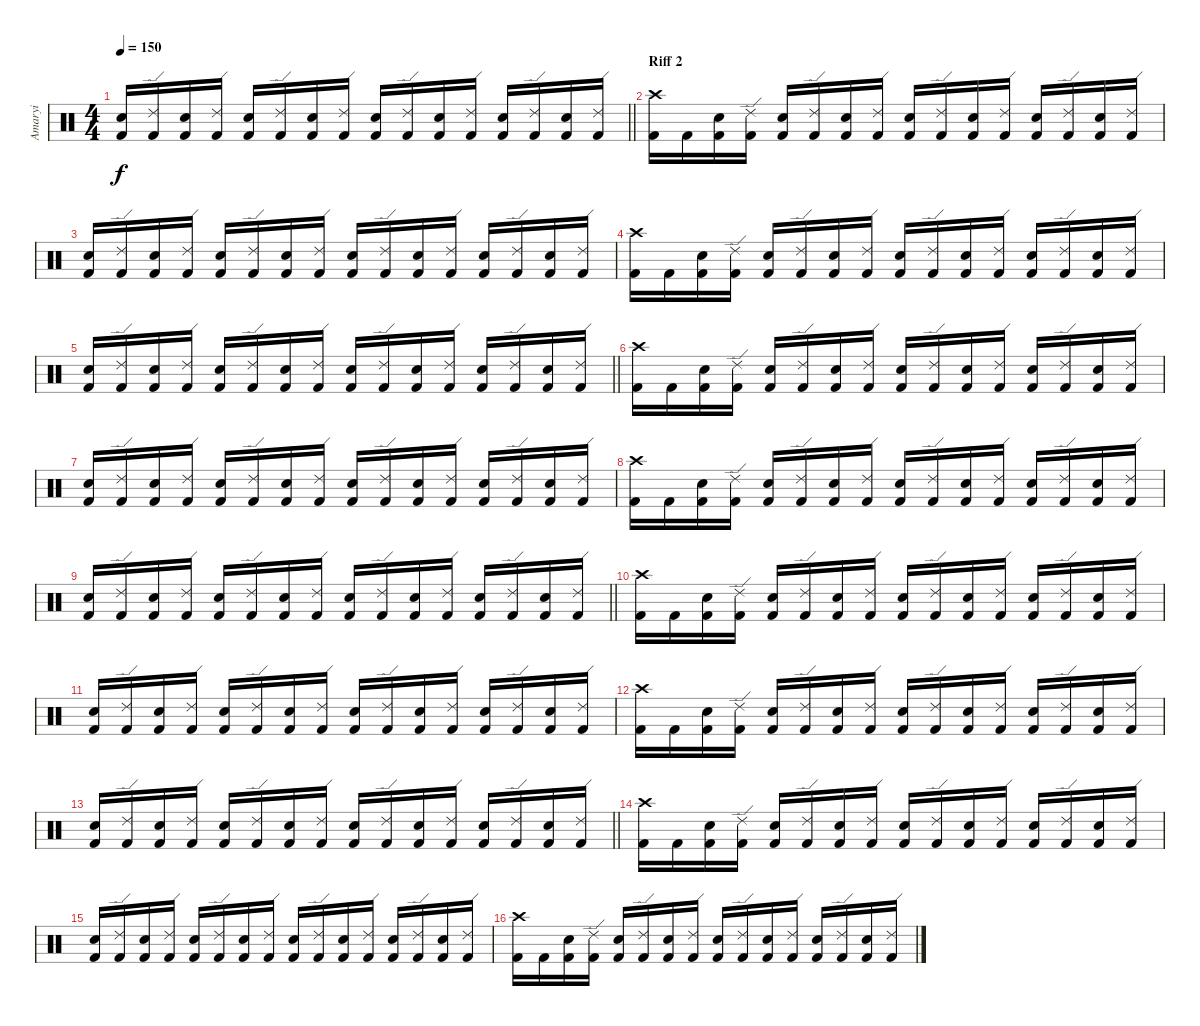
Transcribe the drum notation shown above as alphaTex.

\track ("Amaryi" "Amaryi") {instrument percussion}
\staff {score}
\articulation defaults
\ts (4 4)
\tempo 150
\clef neutral
\barLineRight lightlight
\ks c
("Electric Snare (hit)" "Kick (hit) 2").16{dy f} ("Ride (edge) 2" "Kick (hit) 2").16 ("Electric Snare (hit)" "Kick (hit) 2").16 ("Ride (edge) 2" "Kick (hit) 2").16 ("Electric Snare (hit)" "Kick (hit) 2").16 ("Ride (edge) 2" "Kick (hit) 2").16 ("Electric Snare (hit)" "Kick (hit) 2").16 ("Ride (edge) 2" "Kick (hit) 2").16 ("Electric Snare (hit)" "Kick (hit) 2").16 ("Ride (edge) 2" "Kick (hit) 2").16 ("Electric Snare (hit)" "Kick (hit) 2").16 ("Ride (edge) 2" "Kick (hit) 2").16 ("Electric Snare (hit)" "Kick (hit) 2").16 ("Ride (edge) 2" "Kick (hit) 2").16 ("Electric Snare (hit)" "Kick (hit) 2").16 ("Ride (edge) 2" "Kick (hit) 2").16 |
\section ("" "Riff 2")
("Crash high (hit)" "Kick (hit) 2").16 "Kick (hit) 2".16 ("Electric Snare (hit)" "Kick (hit) 2").16 ("Ride (edge) 2" "Kick (hit) 2").16 ("Electric Snare (hit)" "Kick (hit) 2").16 ("Ride (edge) 2" "Kick (hit) 2").16 ("Electric Snare (hit)" "Kick (hit) 2").16 ("Ride (edge) 2" "Kick (hit) 2").16 ("Electric Snare (hit)" "Kick (hit) 2").16 ("Ride (edge) 2" "Kick (hit) 2").16 ("Electric Snare (hit)" "Kick (hit) 2").16 ("Ride (edge) 2" "Kick (hit) 2").16 ("Electric Snare (hit)" "Kick (hit) 2").16 ("Ride (edge) 2" "Kick (hit) 2").16 ("Electric Snare (hit)" "Kick (hit) 2").16 ("Ride (edge) 2" "Kick (hit) 2").16 |
("Electric Snare (hit)" "Kick (hit) 2").16 ("Ride (edge) 2" "Kick (hit) 2").16 ("Electric Snare (hit)" "Kick (hit) 2").16 ("Ride (edge) 2" "Kick (hit) 2").16 ("Electric Snare (hit)" "Kick (hit) 2").16 ("Ride (edge) 2" "Kick (hit) 2").16 ("Electric Snare (hit)" "Kick (hit) 2").16 ("Ride (edge) 2" "Kick (hit) 2").16 ("Electric Snare (hit)" "Kick (hit) 2").16 ("Ride (edge) 2" "Kick (hit) 2").16 ("Electric Snare (hit)" "Kick (hit) 2").16 ("Ride (edge) 2" "Kick (hit) 2").16 ("Electric Snare (hit)" "Kick (hit) 2").16 ("Ride (edge) 2" "Kick (hit) 2").16 ("Electric Snare (hit)" "Kick (hit) 2").16 ("Ride (edge) 2" "Kick (hit) 2").16 |
("Crash high (hit)" "Kick (hit) 2").16 "Kick (hit) 2".16 ("Electric Snare (hit)" "Kick (hit) 2").16 ("Ride (edge) 2" "Kick (hit) 2").16 ("Electric Snare (hit)" "Kick (hit) 2").16 ("Ride (edge) 2" "Kick (hit) 2").16 ("Electric Snare (hit)" "Kick (hit) 2").16 ("Ride (edge) 2" "Kick (hit) 2").16 ("Electric Snare (hit)" "Kick (hit) 2").16 ("Ride (edge) 2" "Kick (hit) 2").16 ("Electric Snare (hit)" "Kick (hit) 2").16 ("Ride (edge) 2" "Kick (hit) 2").16 ("Electric Snare (hit)" "Kick (hit) 2").16 ("Ride (edge) 2" "Kick (hit) 2").16 ("Electric Snare (hit)" "Kick (hit) 2").16 ("Ride (edge) 2" "Kick (hit) 2").16 |
\barLineRight lightlight
("Electric Snare (hit)" "Kick (hit) 2").16 ("Ride (edge) 2" "Kick (hit) 2").16 ("Electric Snare (hit)" "Kick (hit) 2").16 ("Ride (edge) 2" "Kick (hit) 2").16 ("Electric Snare (hit)" "Kick (hit) 2").16 ("Ride (edge) 2" "Kick (hit) 2").16 ("Electric Snare (hit)" "Kick (hit) 2").16 ("Ride (edge) 2" "Kick (hit) 2").16 ("Electric Snare (hit)" "Kick (hit) 2").16 ("Ride (edge) 2" "Kick (hit) 2").16 ("Electric Snare (hit)" "Kick (hit) 2").16 ("Ride (edge) 2" "Kick (hit) 2").16 ("Electric Snare (hit)" "Kick (hit) 2").16 ("Ride (edge) 2" "Kick (hit) 2").16 ("Electric Snare (hit)" "Kick (hit) 2").16 ("Ride (edge) 2" "Kick (hit) 2").16 |
("Crash high (hit)" "Kick (hit) 2").16 "Kick (hit) 2".16 ("Electric Snare (hit)" "Kick (hit) 2").16 ("Ride (edge) 2" "Kick (hit) 2").16 ("Electric Snare (hit)" "Kick (hit) 2").16 ("Ride (edge) 2" "Kick (hit) 2").16 ("Electric Snare (hit)" "Kick (hit) 2").16 ("Ride (edge) 2" "Kick (hit) 2").16 ("Electric Snare (hit)" "Kick (hit) 2").16 ("Ride (edge) 2" "Kick (hit) 2").16 ("Electric Snare (hit)" "Kick (hit) 2").16 ("Ride (edge) 2" "Kick (hit) 2").16 ("Electric Snare (hit)" "Kick (hit) 2").16 ("Ride (edge) 2" "Kick (hit) 2").16 ("Electric Snare (hit)" "Kick (hit) 2").16 ("Ride (edge) 2" "Kick (hit) 2").16 |
("Electric Snare (hit)" "Kick (hit) 2").16 ("Ride (edge) 2" "Kick (hit) 2").16 ("Electric Snare (hit)" "Kick (hit) 2").16 ("Ride (edge) 2" "Kick (hit) 2").16 ("Electric Snare (hit)" "Kick (hit) 2").16 ("Ride (edge) 2" "Kick (hit) 2").16 ("Electric Snare (hit)" "Kick (hit) 2").16 ("Ride (edge) 2" "Kick (hit) 2").16 ("Electric Snare (hit)" "Kick (hit) 2").16 ("Ride (edge) 2" "Kick (hit) 2").16 ("Electric Snare (hit)" "Kick (hit) 2").16 ("Ride (edge) 2" "Kick (hit) 2").16 ("Electric Snare (hit)" "Kick (hit) 2").16 ("Ride (edge) 2" "Kick (hit) 2").16 ("Electric Snare (hit)" "Kick (hit) 2").16 ("Ride (edge) 2" "Kick (hit) 2").16 |
("Crash high (hit)" "Kick (hit) 2").16 "Kick (hit) 2".16 ("Electric Snare (hit)" "Kick (hit) 2").16 ("Ride (edge) 2" "Kick (hit) 2").16 ("Electric Snare (hit)" "Kick (hit) 2").16 ("Ride (edge) 2" "Kick (hit) 2").16 ("Electric Snare (hit)" "Kick (hit) 2").16 ("Ride (edge) 2" "Kick (hit) 2").16 ("Electric Snare (hit)" "Kick (hit) 2").16 ("Ride (edge) 2" "Kick (hit) 2").16 ("Electric Snare (hit)" "Kick (hit) 2").16 ("Ride (edge) 2" "Kick (hit) 2").16 ("Electric Snare (hit)" "Kick (hit) 2").16 ("Ride (edge) 2" "Kick (hit) 2").16 ("Electric Snare (hit)" "Kick (hit) 2").16 ("Ride (edge) 2" "Kick (hit) 2").16 |
\barLineRight lightlight
("Electric Snare (hit)" "Kick (hit) 2").16 ("Ride (edge) 2" "Kick (hit) 2").16 ("Electric Snare (hit)" "Kick (hit) 2").16 ("Ride (edge) 2" "Kick (hit) 2").16 ("Electric Snare (hit)" "Kick (hit) 2").16 ("Ride (edge) 2" "Kick (hit) 2").16 ("Electric Snare (hit)" "Kick (hit) 2").16 ("Ride (edge) 2" "Kick (hit) 2").16 ("Electric Snare (hit)" "Kick (hit) 2").16 ("Ride (edge) 2" "Kick (hit) 2").16 ("Electric Snare (hit)" "Kick (hit) 2").16 ("Ride (edge) 2" "Kick (hit) 2").16 ("Electric Snare (hit)" "Kick (hit) 2").16 ("Ride (edge) 2" "Kick (hit) 2").16 ("Electric Snare (hit)" "Kick (hit) 2").16 ("Ride (edge) 2" "Kick (hit) 2").16 |
("Crash high (hit)" "Kick (hit) 2").16 "Kick (hit) 2".16 ("Electric Snare (hit)" "Kick (hit) 2").16 ("Ride (edge) 2" "Kick (hit) 2").16 ("Electric Snare (hit)" "Kick (hit) 2").16 ("Ride (edge) 2" "Kick (hit) 2").16 ("Electric Snare (hit)" "Kick (hit) 2").16 ("Ride (edge) 2" "Kick (hit) 2").16 ("Electric Snare (hit)" "Kick (hit) 2").16 ("Ride (edge) 2" "Kick (hit) 2").16 ("Electric Snare (hit)" "Kick (hit) 2").16 ("Ride (edge) 2" "Kick (hit) 2").16 ("Electric Snare (hit)" "Kick (hit) 2").16 ("Ride (edge) 2" "Kick (hit) 2").16 ("Electric Snare (hit)" "Kick (hit) 2").16 ("Ride (edge) 2" "Kick (hit) 2").16 |
("Electric Snare (hit)" "Kick (hit) 2").16 ("Ride (edge) 2" "Kick (hit) 2").16 ("Electric Snare (hit)" "Kick (hit) 2").16 ("Ride (edge) 2" "Kick (hit) 2").16 ("Electric Snare (hit)" "Kick (hit) 2").16 ("Ride (edge) 2" "Kick (hit) 2").16 ("Electric Snare (hit)" "Kick (hit) 2").16 ("Ride (edge) 2" "Kick (hit) 2").16 ("Electric Snare (hit)" "Kick (hit) 2").16 ("Ride (edge) 2" "Kick (hit) 2").16 ("Electric Snare (hit)" "Kick (hit) 2").16 ("Ride (edge) 2" "Kick (hit) 2").16 ("Electric Snare (hit)" "Kick (hit) 2").16 ("Ride (edge) 2" "Kick (hit) 2").16 ("Electric Snare (hit)" "Kick (hit) 2").16 ("Ride (edge) 2" "Kick (hit) 2").16 |
("Crash high (hit)" "Kick (hit) 2").16 "Kick (hit) 2".16 ("Electric Snare (hit)" "Kick (hit) 2").16 ("Ride (edge) 2" "Kick (hit) 2").16 ("Electric Snare (hit)" "Kick (hit) 2").16 ("Ride (edge) 2" "Kick (hit) 2").16 ("Electric Snare (hit)" "Kick (hit) 2").16 ("Ride (edge) 2" "Kick (hit) 2").16 ("Electric Snare (hit)" "Kick (hit) 2").16 ("Ride (edge) 2" "Kick (hit) 2").16 ("Electric Snare (hit)" "Kick (hit) 2").16 ("Ride (edge) 2" "Kick (hit) 2").16 ("Electric Snare (hit)" "Kick (hit) 2").16 ("Ride (edge) 2" "Kick (hit) 2").16 ("Electric Snare (hit)" "Kick (hit) 2").16 ("Ride (edge) 2" "Kick (hit) 2").16 |
\barLineRight lightlight
("Electric Snare (hit)" "Kick (hit) 2").16 ("Ride (edge) 2" "Kick (hit) 2").16 ("Electric Snare (hit)" "Kick (hit) 2").16 ("Ride (edge) 2" "Kick (hit) 2").16 ("Electric Snare (hit)" "Kick (hit) 2").16 ("Ride (edge) 2" "Kick (hit) 2").16 ("Electric Snare (hit)" "Kick (hit) 2").16 ("Ride (edge) 2" "Kick (hit) 2").16 ("Electric Snare (hit)" "Kick (hit) 2").16 ("Ride (edge) 2" "Kick (hit) 2").16 ("Electric Snare (hit)" "Kick (hit) 2").16 ("Ride (edge) 2" "Kick (hit) 2").16 ("Electric Snare (hit)" "Kick (hit) 2").16 ("Ride (edge) 2" "Kick (hit) 2").16 ("Electric Snare (hit)" "Kick (hit) 2").16 ("Ride (edge) 2" "Kick (hit) 2").16 |
("Crash high (hit)" "Kick (hit) 2").16 "Kick (hit) 2".16 ("Electric Snare (hit)" "Kick (hit) 2").16 ("Ride (edge) 2" "Kick (hit) 2").16 ("Electric Snare (hit)" "Kick (hit) 2").16 ("Ride (edge) 2" "Kick (hit) 2").16 ("Electric Snare (hit)" "Kick (hit) 2").16 ("Ride (edge) 2" "Kick (hit) 2").16 ("Electric Snare (hit)" "Kick (hit) 2").16 ("Ride (edge) 2" "Kick (hit) 2").16 ("Electric Snare (hit)" "Kick (hit) 2").16 ("Ride (edge) 2" "Kick (hit) 2").16 ("Electric Snare (hit)" "Kick (hit) 2").16 ("Ride (edge) 2" "Kick (hit) 2").16 ("Electric Snare (hit)" "Kick (hit) 2").16 ("Ride (edge) 2" "Kick (hit) 2").16 |
("Electric Snare (hit)" "Kick (hit) 2").16 ("Ride (edge) 2" "Kick (hit) 2").16 ("Electric Snare (hit)" "Kick (hit) 2").16 ("Ride (edge) 2" "Kick (hit) 2").16 ("Electric Snare (hit)" "Kick (hit) 2").16 ("Ride (edge) 2" "Kick (hit) 2").16 ("Electric Snare (hit)" "Kick (hit) 2").16 ("Ride (edge) 2" "Kick (hit) 2").16 ("Electric Snare (hit)" "Kick (hit) 2").16 ("Ride (edge) 2" "Kick (hit) 2").16 ("Electric Snare (hit)" "Kick (hit) 2").16 ("Ride (edge) 2" "Kick (hit) 2").16 ("Electric Snare (hit)" "Kick (hit) 2").16 ("Ride (edge) 2" "Kick (hit) 2").16 ("Electric Snare (hit)" "Kick (hit) 2").16 ("Ride (edge) 2" "Kick (hit) 2").16 |
("Crash high (hit)" "Kick (hit) 2").16 "Kick (hit) 2".16 ("Electric Snare (hit)" "Kick (hit) 2").16 ("Ride (edge) 2" "Kick (hit) 2").16 ("Electric Snare (hit)" "Kick (hit) 2").16 ("Ride (edge) 2" "Kick (hit) 2").16 ("Electric Snare (hit)" "Kick (hit) 2").16 ("Ride (edge) 2" "Kick (hit) 2").16 ("Electric Snare (hit)" "Kick (hit) 2").16 ("Ride (edge) 2" "Kick (hit) 2").16 ("Electric Snare (hit)" "Kick (hit) 2").16 ("Ride (edge) 2" "Kick (hit) 2").16 ("Electric Snare (hit)" "Kick (hit) 2").16 ("Ride (edge) 2" "Kick (hit) 2").16 ("Electric Snare (hit)" "Kick (hit) 2").16 ("Ride (edge) 2" "Kick (hit) 2").16
